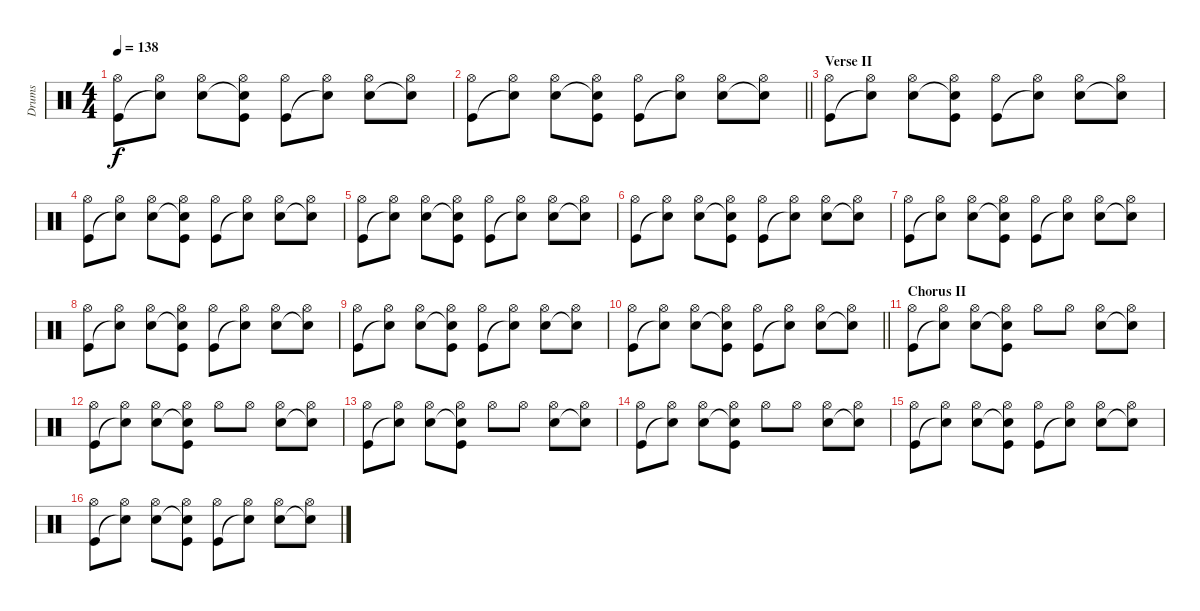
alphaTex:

\track ("Drums" "Drums") {instrument percussion}
\staff {score}
\articulation defaults
\ts (4 4)
\tempo 138
\clef neutral
\ks c
("Hi-Hat (open)" "Kick (hit)").8{dy f} ("Hi-Hat (open)" "Snare (hit)"{t}).8 ("Hi-Hat (open)" "Snare (hit) 2").8 ("Hi-Hat (open)" "Snare (hit)"{t} "Kick (hit)").8 ("Hi-Hat (open)" "Kick (hit)").8 ("Hi-Hat (open)" "Snare (hit)"{t}).8 ("Hi-Hat (open)" "Snare (hit) 2").8 ("Hi-Hat (open)" "Snare (hit)"{t}).8 |
\barLineRight lightlight
("Hi-Hat (open)" "Kick (hit)").8 ("Hi-Hat (open)" "Snare (hit)"{t}).8 ("Hi-Hat (open)" "Snare (hit) 2").8 ("Hi-Hat (open)" "Snare (hit)"{t} "Kick (hit)").8 ("Hi-Hat (open)" "Kick (hit)").8 ("Hi-Hat (open)" "Snare (hit)"{t}).8 ("Hi-Hat (open)" "Snare (hit) 2").8 ("Hi-Hat (open)" "Snare (hit)"{t}).8 |
\section ("" "Verse II")
("Hi-Hat (open)" "Kick (hit)").8 ("Hi-Hat (open)" "Snare (hit)"{t}).8 ("Hi-Hat (open)" "Snare (hit) 2").8 ("Hi-Hat (open)" "Snare (hit)"{t} "Kick (hit)").8 ("Hi-Hat (open)" "Kick (hit)").8 ("Hi-Hat (open)" "Snare (hit)"{t}).8 ("Hi-Hat (open)" "Snare (hit) 2").8 ("Hi-Hat (open)" "Snare (hit)"{t}).8 |
("Hi-Hat (open)" "Kick (hit)").8 ("Hi-Hat (open)" "Snare (hit)"{t}).8 ("Hi-Hat (open)" "Snare (hit) 2").8 ("Hi-Hat (open)" "Snare (hit)"{t} "Kick (hit)").8 ("Hi-Hat (open)" "Kick (hit)").8 ("Hi-Hat (open)" "Snare (hit)"{t}).8 ("Hi-Hat (open)" "Snare (hit) 2").8 ("Hi-Hat (open)" "Snare (hit)"{t}).8 |
("Hi-Hat (open)" "Kick (hit)").8 ("Hi-Hat (open)" "Snare (hit)"{t}).8 ("Hi-Hat (open)" "Snare (hit) 2").8 ("Hi-Hat (open)" "Snare (hit)"{t} "Kick (hit)").8 ("Hi-Hat (open)" "Kick (hit)").8 ("Hi-Hat (open)" "Snare (hit)"{t}).8 ("Hi-Hat (open)" "Snare (hit) 2").8 ("Hi-Hat (open)" "Snare (hit)"{t}).8 |
("Hi-Hat (open)" "Kick (hit)").8 ("Hi-Hat (open)" "Snare (hit)"{t}).8 ("Hi-Hat (open)" "Snare (hit) 2").8 ("Hi-Hat (open)" "Snare (hit)"{t} "Kick (hit)").8 ("Hi-Hat (open)" "Kick (hit)").8 ("Hi-Hat (open)" "Snare (hit)"{t}).8 ("Hi-Hat (open)" "Snare (hit) 2").8 ("Hi-Hat (open)" "Snare (hit)"{t}).8 |
("Hi-Hat (open)" "Kick (hit)").8 ("Hi-Hat (open)" "Snare (hit)"{t}).8 ("Hi-Hat (open)" "Snare (hit) 2").8 ("Hi-Hat (open)" "Snare (hit)"{t} "Kick (hit)").8 ("Hi-Hat (open)" "Kick (hit)").8 ("Hi-Hat (open)" "Snare (hit)"{t}).8 ("Hi-Hat (open)" "Snare (hit) 2").8 ("Hi-Hat (open)" "Snare (hit)"{t}).8 |
("Hi-Hat (open)" "Kick (hit)").8 ("Hi-Hat (open)" "Snare (hit)"{t}).8 ("Hi-Hat (open)" "Snare (hit) 2").8 ("Hi-Hat (open)" "Snare (hit)"{t} "Kick (hit)").8 ("Hi-Hat (open)" "Kick (hit)").8 ("Hi-Hat (open)" "Snare (hit)"{t}).8 ("Hi-Hat (open)" "Snare (hit) 2").8 ("Hi-Hat (open)" "Snare (hit)"{t}).8 |
("Hi-Hat (open)" "Kick (hit)").8 ("Hi-Hat (open)" "Snare (hit)"{t}).8 ("Hi-Hat (open)" "Snare (hit) 2").8 ("Hi-Hat (open)" "Snare (hit)"{t} "Kick (hit)").8 ("Hi-Hat (open)" "Kick (hit)").8 ("Hi-Hat (open)" "Snare (hit)"{t}).8 ("Hi-Hat (open)" "Snare (hit) 2").8 ("Hi-Hat (open)" "Snare (hit)"{t}).8 |
\barLineRight lightlight
("Hi-Hat (open)" "Kick (hit)").8 ("Hi-Hat (open)" "Snare (hit)"{t}).8 ("Hi-Hat (open)" "Snare (hit) 2").8 ("Hi-Hat (open)" "Snare (hit)"{t} "Kick (hit)").8 ("Hi-Hat (open)" "Kick (hit)").8 ("Hi-Hat (open)" "Snare (hit)"{t}).8 ("Hi-Hat (open)" "Snare (hit) 2").8 ("Hi-Hat (open)" "Snare (hit)"{t}).8 |
\section ("" "Chorus II")
("Hi-Hat (open)" "Kick (hit)").8 ("Hi-Hat (open)" "Snare (hit)"{t}).8 ("Hi-Hat (open)" "Snare (hit) 2").8 ("Hi-Hat (open)" "Snare (hit)"{t} "Kick (hit)").8 "Hi-Hat (open)".8 "Hi-Hat (open)".8 ("Hi-Hat (open)" "Snare (hit) 2").8 ("Hi-Hat (open)" "Snare (hit)"{t}).8 |
("Hi-Hat (open)" "Kick (hit)").8 ("Hi-Hat (open)" "Snare (hit)"{t}).8 ("Hi-Hat (open)" "Snare (hit) 2").8 ("Hi-Hat (open)" "Snare (hit)"{t} "Kick (hit)").8 "Hi-Hat (open)".8 "Hi-Hat (open)".8 ("Hi-Hat (open)" "Snare (hit) 2").8 ("Hi-Hat (open)" "Snare (hit)"{t}).8 |
("Hi-Hat (open)" "Kick (hit)").8 ("Hi-Hat (open)" "Snare (hit)"{t}).8 ("Hi-Hat (open)" "Snare (hit) 2").8 ("Hi-Hat (open)" "Snare (hit)"{t} "Kick (hit)").8 "Hi-Hat (open)".8 "Hi-Hat (open)".8 ("Hi-Hat (open)" "Snare (hit) 2").8 ("Hi-Hat (open)" "Snare (hit)"{t}).8 |
("Hi-Hat (open)" "Kick (hit)").8 ("Hi-Hat (open)" "Snare (hit)"{t}).8 ("Hi-Hat (open)" "Snare (hit) 2").8 ("Hi-Hat (open)" "Snare (hit)"{t} "Kick (hit)").8 "Hi-Hat (open)".8 "Hi-Hat (open)".8 ("Hi-Hat (open)" "Snare (hit) 2").8 ("Hi-Hat (open)" "Snare (hit)"{t}).8 |
("Hi-Hat (open)" "Kick (hit)").8 ("Hi-Hat (open)" "Snare (hit)"{t}).8 ("Hi-Hat (open)" "Snare (hit) 2").8 ("Hi-Hat (open)" "Snare (hit)"{t} "Kick (hit)").8 ("Hi-Hat (open)" "Kick (hit)").8 ("Hi-Hat (open)" "Snare (hit)"{t}).8 ("Hi-Hat (open)" "Snare (hit) 2").8 ("Hi-Hat (open)" "Snare (hit)"{t}).8 |
("Hi-Hat (open)" "Kick (hit)").8 ("Hi-Hat (open)" "Snare (hit)"{t}).8 ("Hi-Hat (open)" "Snare (hit) 2").8 ("Hi-Hat (open)" "Snare (hit)"{t} "Kick (hit)").8 ("Hi-Hat (open)" "Kick (hit)").8 ("Hi-Hat (open)" "Snare (hit)"{t}).8 ("Hi-Hat (open)" "Snare (hit) 2").8 ("Hi-Hat (open)" "Snare (hit)"{t}).8
